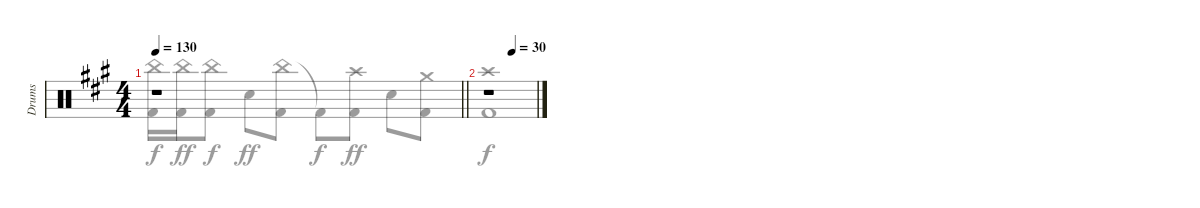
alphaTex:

\track ("Drums" "Drums") {instrument percussion}
\staff {score}
\articulation defaults
\voice
\ts (4 4)
\tempo 130
\clef neutral
\barLineRight lightlight
\ks f#minor
r.1{dy f} |
\tempo (30 0.5)
r.1
\voice
\clef neutral
\ottava regular
\simile none
\barLineRight lightlight
\ks f#minor
("China (hit)" "Kick (hit) 2").16{dy f} ("China (hit)" "Kick (hit) 2").16{dy ff} ("China (hit)" "Kick (hit) 2").8{dy f} "Snare (hit) 2".8{dy ff} ("China (hit)" "Kick (hit) 2").8 "Kick (hit) 2"{t}.8{dy f} ("Crash high (hit)" "Kick (hit) 2").8{dy ff} "Snare (hit) 2".8 ("Crash medium (hit)" "Kick (hit) 2").8 |
("Crash high (hit)" "Kick (hit) 2").1{dy f}
